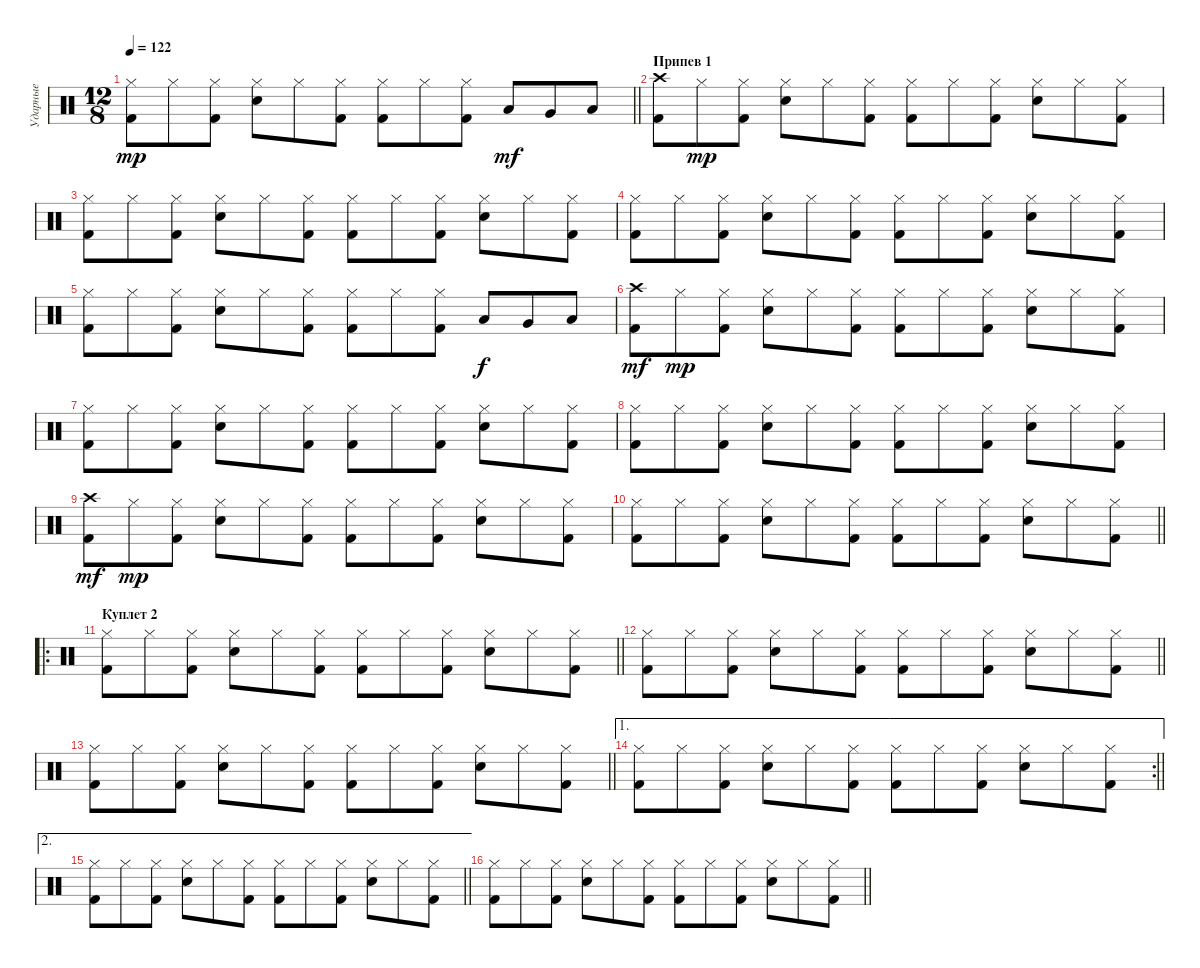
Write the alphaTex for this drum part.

\track ("Ударные" "Ударные") {instrument percussion}
\staff {score}
\articulation defaults
\ts (12 8)
\tempo 122
\clef neutral
\barLineRight lightlight
\ks c
("Hi-Hat (closed)" "Kick (hit) 2").8{dy mp} "Hi-Hat (closed)".8 ("Hi-Hat (closed)" "Kick (hit) 2").8 ("Hi-Hat (closed)" "Electric Snare (hit)").8 "Hi-Hat (closed)".8 ("Hi-Hat (closed)" "Kick (hit) 2").8 ("Hi-Hat (closed)" "Kick (hit) 2").8 "Hi-Hat (closed)".8 ("Hi-Hat (closed)" "Kick (hit) 2").8 "Low Tom (hit)".8{dy mf} "Very Low Tom (hit)".8 "Low Floor Tom (hit)".8 |
\section ("" "Припев 1")
("Crash high (hit)" "Kick (hit) 2").8 "Hi-Hat (closed)".8{dy mp} ("Hi-Hat (closed)" "Kick (hit) 2").8 ("Hi-Hat (closed)" "Electric Snare (hit)").8 "Hi-Hat (closed)".8 ("Hi-Hat (closed)" "Kick (hit) 2").8 ("Hi-Hat (closed)" "Kick (hit) 2").8 "Hi-Hat (closed)".8 ("Hi-Hat (closed)" "Kick (hit) 2").8 ("Hi-Hat (closed)" "Electric Snare (hit)").8 "Hi-Hat (closed)".8 ("Hi-Hat (closed)" "Kick (hit) 2").8 |
("Hi-Hat (closed)" "Kick (hit) 2").8 "Hi-Hat (closed)".8 ("Hi-Hat (closed)" "Kick (hit) 2").8 ("Hi-Hat (closed)" "Electric Snare (hit)").8 "Hi-Hat (closed)".8 ("Hi-Hat (closed)" "Kick (hit) 2").8 ("Hi-Hat (closed)" "Kick (hit) 2").8 "Hi-Hat (closed)".8 ("Hi-Hat (closed)" "Kick (hit) 2").8 ("Hi-Hat (closed)" "Electric Snare (hit)").8 "Hi-Hat (closed)".8 ("Hi-Hat (closed)" "Kick (hit) 2").8 |
("Hi-Hat (closed)" "Kick (hit) 2").8 "Hi-Hat (closed)".8 ("Hi-Hat (closed)" "Kick (hit) 2").8 ("Hi-Hat (closed)" "Electric Snare (hit)").8 "Hi-Hat (closed)".8 ("Hi-Hat (closed)" "Kick (hit) 2").8 ("Hi-Hat (closed)" "Kick (hit) 2").8 "Hi-Hat (closed)".8 ("Hi-Hat (closed)" "Kick (hit) 2").8 ("Hi-Hat (closed)" "Electric Snare (hit)").8 "Hi-Hat (closed)".8 ("Hi-Hat (closed)" "Kick (hit) 2").8 |
("Hi-Hat (closed)" "Kick (hit) 2").8 "Hi-Hat (closed)".8 ("Hi-Hat (closed)" "Kick (hit) 2").8 ("Hi-Hat (closed)" "Electric Snare (hit)").8 "Hi-Hat (closed)".8 ("Hi-Hat (closed)" "Kick (hit) 2").8 ("Hi-Hat (closed)" "Kick (hit) 2").8 "Hi-Hat (closed)".8 ("Hi-Hat (closed)" "Kick (hit) 2").8 "Low Tom (hit)".8{dy f} "Very Low Tom (hit)".8 "Low Floor Tom (hit)".8 |
("Crash high (hit)" "Kick (hit) 2").8{dy mf} "Hi-Hat (closed)".8{dy mp} ("Hi-Hat (closed)" "Kick (hit) 2").8 ("Hi-Hat (closed)" "Electric Snare (hit)").8 "Hi-Hat (closed)".8 ("Hi-Hat (closed)" "Kick (hit) 2").8 ("Hi-Hat (closed)" "Kick (hit) 2").8 "Hi-Hat (closed)".8 ("Hi-Hat (closed)" "Kick (hit) 2").8 ("Hi-Hat (closed)" "Electric Snare (hit)").8 "Hi-Hat (closed)".8 ("Hi-Hat (closed)" "Kick (hit) 2").8 |
("Hi-Hat (closed)" "Kick (hit) 2").8 "Hi-Hat (closed)".8 ("Hi-Hat (closed)" "Kick (hit) 2").8 ("Hi-Hat (closed)" "Electric Snare (hit)").8 "Hi-Hat (closed)".8 ("Hi-Hat (closed)" "Kick (hit) 2").8 ("Hi-Hat (closed)" "Kick (hit) 2").8 "Hi-Hat (closed)".8 ("Hi-Hat (closed)" "Kick (hit) 2").8 ("Hi-Hat (closed)" "Electric Snare (hit)").8 "Hi-Hat (closed)".8 ("Hi-Hat (closed)" "Kick (hit) 2").8 |
("Hi-Hat (closed)" "Kick (hit) 2").8 "Hi-Hat (closed)".8 ("Hi-Hat (closed)" "Kick (hit) 2").8 ("Hi-Hat (closed)" "Electric Snare (hit)").8 "Hi-Hat (closed)".8 ("Hi-Hat (closed)" "Kick (hit) 2").8 ("Hi-Hat (closed)" "Kick (hit) 2").8 "Hi-Hat (closed)".8 ("Hi-Hat (closed)" "Kick (hit) 2").8 ("Hi-Hat (closed)" "Electric Snare (hit)").8 "Hi-Hat (closed)".8 ("Hi-Hat (closed)" "Kick (hit) 2").8 |
("Crash high (hit)" "Kick (hit) 2").8{dy mf} "Hi-Hat (closed)".8{dy mp} ("Hi-Hat (closed)" "Kick (hit) 2").8 ("Hi-Hat (closed)" "Electric Snare (hit)").8 "Hi-Hat (closed)".8 ("Hi-Hat (closed)" "Kick (hit) 2").8 ("Hi-Hat (closed)" "Kick (hit) 2").8 "Hi-Hat (closed)".8 ("Hi-Hat (closed)" "Kick (hit) 2").8 ("Hi-Hat (closed)" "Electric Snare (hit)").8 "Hi-Hat (closed)".8 ("Hi-Hat (closed)" "Kick (hit) 2").8 |
\barLineRight lightlight
("Hi-Hat (closed)" "Kick (hit) 2").8 "Hi-Hat (closed)".8 ("Hi-Hat (closed)" "Kick (hit) 2").8 ("Hi-Hat (closed)" "Electric Snare (hit)").8 "Hi-Hat (closed)".8 ("Hi-Hat (closed)" "Kick (hit) 2").8 ("Hi-Hat (closed)" "Kick (hit) 2").8 "Hi-Hat (closed)".8 ("Hi-Hat (closed)" "Kick (hit) 2").8 ("Hi-Hat (closed)" "Electric Snare (hit)").8 "Hi-Hat (closed)".8 ("Hi-Hat (closed)" "Kick (hit) 2").8 |
\ro
\section ("" "Куплет 2")
\barLineRight lightlight
("Hi-Hat (closed)" "Kick (hit) 2").8 "Hi-Hat (closed)".8 ("Hi-Hat (closed)" "Kick (hit) 2").8 ("Hi-Hat (closed)" "Electric Snare (hit)").8 "Hi-Hat (closed)".8 ("Hi-Hat (closed)" "Kick (hit) 2").8 ("Hi-Hat (closed)" "Kick (hit) 2").8 "Hi-Hat (closed)".8 ("Hi-Hat (closed)" "Kick (hit) 2").8 ("Hi-Hat (closed)" "Electric Snare (hit)").8 "Hi-Hat (closed)".8 ("Hi-Hat (closed)" "Kick (hit) 2").8 |
\barLineRight lightlight
("Hi-Hat (closed)" "Kick (hit) 2").8 "Hi-Hat (closed)".8 ("Hi-Hat (closed)" "Kick (hit) 2").8 ("Hi-Hat (closed)" "Electric Snare (hit)").8 "Hi-Hat (closed)".8 ("Hi-Hat (closed)" "Kick (hit) 2").8 ("Hi-Hat (closed)" "Kick (hit) 2").8 "Hi-Hat (closed)".8 ("Hi-Hat (closed)" "Kick (hit) 2").8 ("Hi-Hat (closed)" "Electric Snare (hit)").8 "Hi-Hat (closed)".8 ("Hi-Hat (closed)" "Kick (hit) 2").8 |
\barLineRight lightlight
("Hi-Hat (closed)" "Kick (hit) 2").8 "Hi-Hat (closed)".8 ("Hi-Hat (closed)" "Kick (hit) 2").8 ("Hi-Hat (closed)" "Electric Snare (hit)").8 "Hi-Hat (closed)".8 ("Hi-Hat (closed)" "Kick (hit) 2").8 ("Hi-Hat (closed)" "Kick (hit) 2").8 "Hi-Hat (closed)".8 ("Hi-Hat (closed)" "Kick (hit) 2").8 ("Hi-Hat (closed)" "Electric Snare (hit)").8 "Hi-Hat (closed)".8 ("Hi-Hat (closed)" "Kick (hit) 2").8 |
\ae 1
\rc 2
\barLineRight lightlight
("Hi-Hat (closed)" "Kick (hit) 2").8 "Hi-Hat (closed)".8 ("Hi-Hat (closed)" "Kick (hit) 2").8 ("Hi-Hat (closed)" "Electric Snare (hit)").8 "Hi-Hat (closed)".8 ("Hi-Hat (closed)" "Kick (hit) 2").8 ("Hi-Hat (closed)" "Kick (hit) 2").8 "Hi-Hat (closed)".8 ("Hi-Hat (closed)" "Kick (hit) 2").8 ("Hi-Hat (closed)" "Electric Snare (hit)").8 "Hi-Hat (closed)".8 ("Hi-Hat (closed)" "Kick (hit) 2").8 |
\ae 2
\barLineRight lightlight
("Hi-Hat (closed)" "Kick (hit) 2").8 "Hi-Hat (closed)".8 ("Hi-Hat (closed)" "Kick (hit) 2").8 ("Hi-Hat (closed)" "Electric Snare (hit)").8 "Hi-Hat (closed)".8 ("Hi-Hat (closed)" "Kick (hit) 2").8 ("Hi-Hat (closed)" "Kick (hit) 2").8 "Hi-Hat (closed)".8 ("Hi-Hat (closed)" "Kick (hit) 2").8 ("Hi-Hat (closed)" "Electric Snare (hit)").8 "Hi-Hat (closed)".8 ("Hi-Hat (closed)" "Kick (hit) 2").8 |
\barLineRight lightlight
("Hi-Hat (closed)" "Kick (hit) 2").8 "Hi-Hat (closed)".8 ("Hi-Hat (closed)" "Kick (hit) 2").8 ("Hi-Hat (closed)" "Electric Snare (hit)").8 "Hi-Hat (closed)".8 ("Hi-Hat (closed)" "Kick (hit) 2").8 ("Hi-Hat (closed)" "Kick (hit) 2").8 "Hi-Hat (closed)".8 ("Hi-Hat (closed)" "Kick (hit) 2").8 ("Hi-Hat (closed)" "Electric Snare (hit)").8 "Hi-Hat (closed)".8 ("Hi-Hat (closed)" "Kick (hit) 2").8
